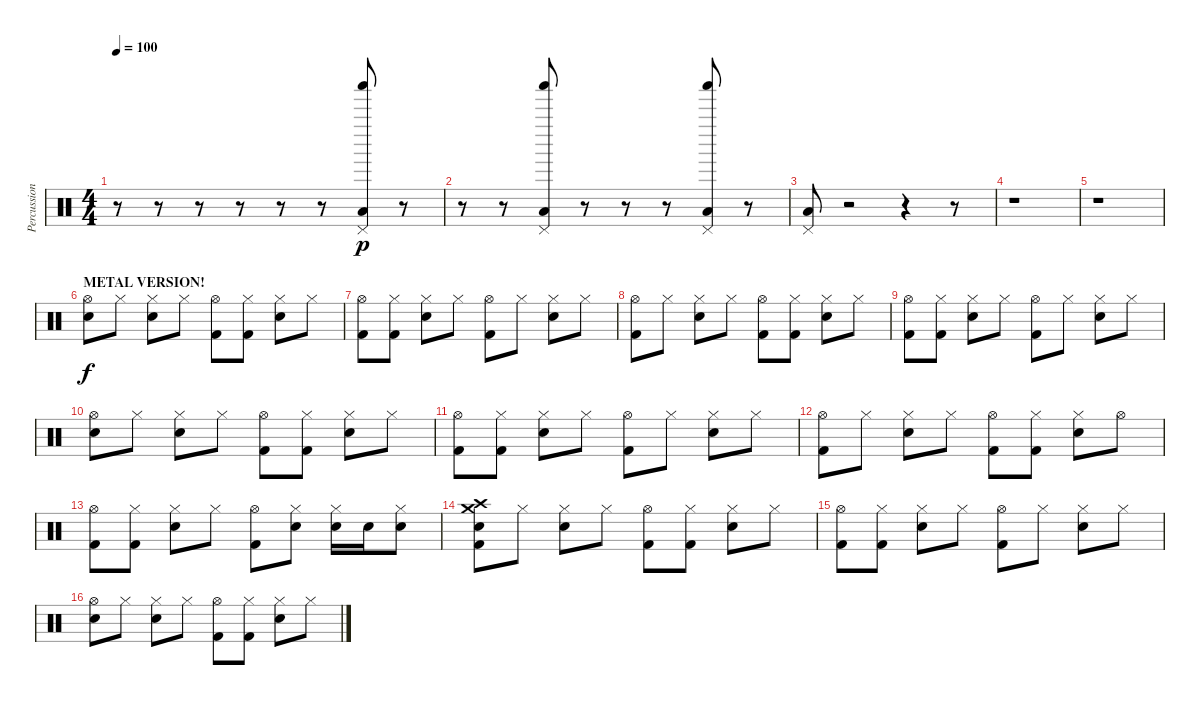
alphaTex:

\track ("Percussions" "Percussion") {instrument percussion}
\staff {score}
\articulation defaults
\ts (4 4)
\tempo 100
\clef neutral
\ks c
r.8{dy p} r.8 r.8 r.8 r.8 r.8 ("Pedal Hi-Hat (hit)" "Shaker (hit)" "Low Floor Tom (hit)").8 r.8 |
r.8 r.8 ("Pedal Hi-Hat (hit)" "Shaker (hit)" "Low Floor Tom (hit)").8 r.8 r.8 r.8 ("Pedal Hi-Hat (hit)" "Shaker (hit)" "Low Floor Tom (hit)").8 r.8 |
("Pedal Hi-Hat (hit)" "Low Floor Tom (hit)").8 r.2 r.4 r.8 |
r.1 |
r.1 |
\section ("" "METAL VERSION!")
("Hi-Hat (open)" "Snare (hit) 2").8{dy f} "Hi-Hat (closed)".8 ("Hi-Hat (closed)" "Snare (hit) 2").8 "Hi-Hat (closed)".8 ("Hi-Hat (open)" "Kick (hit) 2").8 ("Hi-Hat (closed)" "Kick (hit) 2").8 ("Hi-Hat (closed)" "Snare (hit) 2").8 "Hi-Hat (closed)".8 |
("Hi-Hat (open)" "Kick (hit) 2").8 ("Hi-Hat (closed)" "Kick (hit) 2").8 ("Hi-Hat (closed)" "Snare (hit) 2").8 "Hi-Hat (closed)".8 ("Hi-Hat (open)" "Kick (hit) 2").8 "Hi-Hat (closed)".8 ("Hi-Hat (closed)" "Snare (hit) 2").8 "Hi-Hat (closed)".8 |
("Hi-Hat (open)" "Kick (hit) 2").8 "Hi-Hat (closed)".8 ("Hi-Hat (closed)" "Snare (hit) 2").8 "Hi-Hat (closed)".8 ("Hi-Hat (open)" "Kick (hit) 2").8 ("Hi-Hat (closed)" "Kick (hit) 2").8 ("Hi-Hat (closed)" "Snare (hit) 2").8 "Hi-Hat (closed)".8 |
("Hi-Hat (open)" "Kick (hit) 2").8 ("Hi-Hat (closed)" "Kick (hit) 2").8 ("Hi-Hat (closed)" "Snare (hit) 2").8 "Hi-Hat (closed)".8 ("Hi-Hat (open)" "Kick (hit) 2").8 "Hi-Hat (closed)".8 ("Hi-Hat (closed)" "Snare (hit) 2").8 "Hi-Hat (closed)".8 |
("Hi-Hat (open)" "Snare (hit) 2").8 "Hi-Hat (closed)".8 ("Hi-Hat (closed)" "Snare (hit) 2").8 "Hi-Hat (closed)".8 ("Hi-Hat (open)" "Kick (hit) 2").8 ("Hi-Hat (closed)" "Kick (hit) 2").8 ("Hi-Hat (closed)" "Snare (hit) 2").8 "Hi-Hat (closed)".8 |
("Hi-Hat (open)" "Kick (hit) 2").8 ("Hi-Hat (closed)" "Kick (hit) 2").8 ("Hi-Hat (closed)" "Snare (hit) 2").8 "Hi-Hat (closed)".8 ("Hi-Hat (open)" "Kick (hit) 2").8 "Hi-Hat (closed)".8 ("Hi-Hat (closed)" "Snare (hit) 2").8 "Hi-Hat (closed)".8 |
("Hi-Hat (open)" "Kick (hit) 2").8 "Hi-Hat (closed)".8 ("Hi-Hat (closed)" "Snare (hit) 2").8 "Hi-Hat (closed)".8 ("Hi-Hat (open)" "Kick (hit) 2").8 ("Hi-Hat (closed)" "Kick (hit) 2").8 ("Hi-Hat (closed)" "Snare (hit) 2").8 "Hi-Hat (open)".8 |
("Hi-Hat (open)" "Kick (hit) 2").8 ("Hi-Hat (closed)" "Kick (hit) 2").8 ("Hi-Hat (closed)" "Snare (hit) 2").8 "Hi-Hat (closed)".8 ("Hi-Hat (open)" "Kick (hit) 2").8 ("Hi-Hat (closed)" "Snare (hit) 2").8 ("Hi-Hat (closed)" "Snare (hit) 2").16 "Snare (hit) 2".16 ("Hi-Hat (closed)" "Snare (hit) 2").8 |
("Crash high (hit)" "Crash medium (hit)" "Snare (hit) 2" "Kick (hit) 2").8 "Hi-Hat (closed)".8 ("Hi-Hat (closed)" "Snare (hit) 2").8 "Hi-Hat (closed)".8 ("Hi-Hat (open)" "Kick (hit) 2").8 ("Hi-Hat (closed)" "Kick (hit) 2").8 ("Hi-Hat (closed)" "Snare (hit) 2").8 "Hi-Hat (closed)".8 |
("Hi-Hat (open)" "Kick (hit) 2").8 ("Hi-Hat (closed)" "Kick (hit) 2").8 ("Hi-Hat (closed)" "Snare (hit) 2").8 "Hi-Hat (closed)".8 ("Hi-Hat (open)" "Kick (hit) 2").8 "Hi-Hat (closed)".8 ("Hi-Hat (closed)" "Snare (hit) 2").8 "Hi-Hat (closed)".8 |
("Hi-Hat (open)" "Snare (hit) 2").8 "Hi-Hat (closed)".8 ("Hi-Hat (closed)" "Snare (hit) 2").8 "Hi-Hat (closed)".8 ("Hi-Hat (open)" "Kick (hit) 2").8 ("Hi-Hat (closed)" "Kick (hit) 2").8 ("Hi-Hat (closed)" "Snare (hit) 2").8 "Hi-Hat (closed)".8
